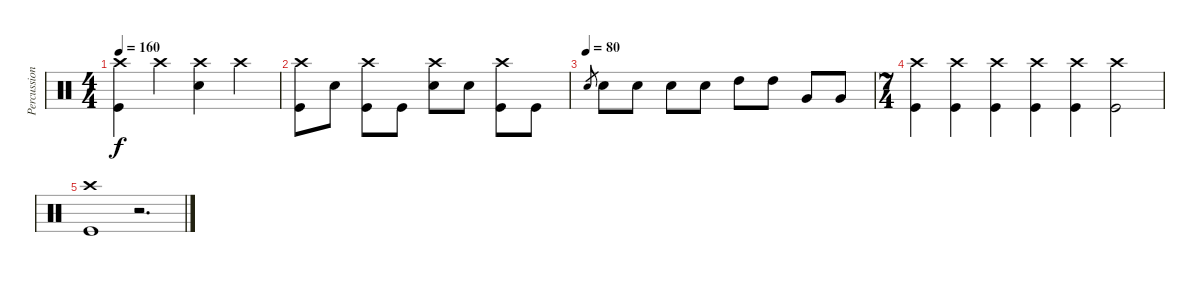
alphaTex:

\track ("Percussions" "Percussion") {instrument percussion}
\staff {score}
\articulation defaults
\ts (4 4)
\tempo 160
\clef neutral
\ks c
("Kick (hit)" "Crash high (hit)").4{dy f} "Crash high (hit)".4 ("Snare (hit) 2" "Crash high (hit)").4 "Crash high (hit)".4 |
("Kick (hit)" "Crash high (hit)").8 "Snare (hit) 2".8 ("Kick (hit)" "Crash high (hit)").8 "Kick (hit)".8 ("Snare (hit) 2" "Crash high (hit)").8 "Snare (hit) 2".8 ("Kick (hit)" "Crash high (hit)").8 "Kick (hit)".8 |
\tempo (80)
"Snare (hit) 2".8{gr} "Snare (hit) 2".8 "Snare (hit) 2".8 "Snare (hit) 2".8 "Snare (hit) 2".8 "High Tom (hit)".8 "High Tom (hit)".8 "Very Low Tom (hit)".8 "Very Low Tom (hit)".8 |
\ts (7 4)
("Kick (hit)" "Crash high (hit)").4 ("Crash high (hit)" "Kick (hit)").4 ("Crash high (hit)" "Kick (hit)").4 ("Crash high (hit)" "Kick (hit)").4 ("Crash high (hit)" "Kick (hit)").4 ("Crash high (hit)" "Kick (hit)").2 |
("Crash high (hit)" "Kick (hit)").1 r.2{d}
